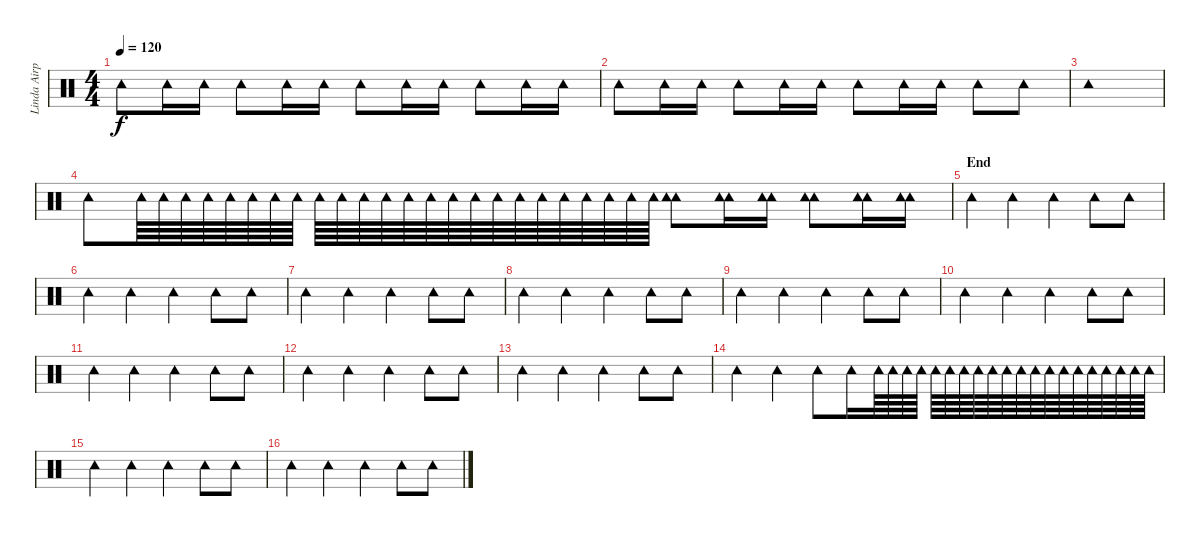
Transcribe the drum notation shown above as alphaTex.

\track ("Linda Airplane" "Linda Airp") {instrument percussion}
\staff {score}
\articulation defaults
\ts (4 4)
\tempo 120
\clef neutral
\ks c "Tambourine (hit)".8{dy f} "Tambourine (hit)".16 "Tambourine (hit)".16 "Tambourine (hit)".8 "Tambourine (hit)".16 "Tambourine (hit)".16 "Tambourine (hit)".8 "Tambourine (hit)".16 "Tambourine (hit)".16 "Tambourine (hit)".8 "Tambourine (hit)".16 "Tambourine (hit)".16
|
"Tambourine (hit)".8 "Tambourine (hit)".16 "Tambourine (hit)".16 "Tambourine (hit)".8 "Tambourine (hit)".16 "Tambourine (hit)".16 "Tambourine (hit)".8 "Tambourine (hit)".16 "Tambourine (hit)".16 "Tambourine (hit)".8 "Tambourine (hit)".8 |
"Tambourine (hit)".1 |
"Tambourine (hit)".8 "Tambourine (hit)".64 "Tambourine (hit)".64 "Tambourine (hit)".64 "Tambourine (hit)".64 "Tambourine (hit)".64 "Tambourine (hit)".64 "Tambourine (hit)".64 "Tambourine (hit)".64 "Tambourine (hit)".64 "Tambourine (hit)".64 "Tambourine (hit)".64 "Tambourine (hit)".64 "Tambourine (hit)".64 "Tambourine (hit)".64 "Tambourine (hit)".64 "Tambourine (hit)".64 "Tambourine (hit)".64 "Tambourine (hit)".64 "Tambourine (hit)".64 "Tambourine (hit)".64 "Tambourine (hit)".64 "Tambourine (hit)".64 "Tambourine (hit)".64 "Tambourine (hit)".64 ("Tambourine (hit)" "Tambourine (hit)").8 ("Tambourine (hit)" "Tambourine (hit)").16 ("Tambourine (hit)" "Tambourine (hit)").16 ("Tambourine (hit)" "Tambourine (hit)").8 ("Tambourine (hit)" "Tambourine (hit)").16 ("Tambourine (hit)" "Tambourine (hit)").16 |
\section ("" "End")
"Tambourine (hit)".4 "Tambourine (hit)".4 "Tambourine (hit)".4 "Tambourine (hit)".8 "Tambourine (hit)".8 |
"Tambourine (hit)".4 "Tambourine (hit)".4 "Tambourine (hit)".4 "Tambourine (hit)".8 "Tambourine (hit)".8 |
"Tambourine (hit)".4 "Tambourine (hit)".4 "Tambourine (hit)".4 "Tambourine (hit)".8 "Tambourine (hit)".8 |
"Tambourine (hit)".4 "Tambourine (hit)".4 "Tambourine (hit)".4 "Tambourine (hit)".8 "Tambourine (hit)".8 |
"Tambourine (hit)".4 "Tambourine (hit)".4 "Tambourine (hit)".4 "Tambourine (hit)".8 "Tambourine (hit)".8 |
"Tambourine (hit)".4 "Tambourine (hit)".4 "Tambourine (hit)".4 "Tambourine (hit)".8 "Tambourine (hit)".8 |
"Tambourine (hit)".4 "Tambourine (hit)".4 "Tambourine (hit)".4 "Tambourine (hit)".8 "Tambourine (hit)".8 |
"Tambourine (hit)".4 "Tambourine (hit)".4 "Tambourine (hit)".4 "Tambourine (hit)".8 "Tambourine (hit)".8 |
"Tambourine (hit)".4 "Tambourine (hit)".4 "Tambourine (hit)".4 "Tambourine (hit)".8 "Tambourine (hit)".8 |
"Tambourine (hit)".4 "Tambourine (hit)".4 "Tambourine (hit)".8 "Tambourine (hit)".16 "Tambourine (hit)".64 "Tambourine (hit)".64 "Tambourine (hit)".64 "Tambourine (hit)".64 "Tambourine (hit)".64 "Tambourine (hit)".64 "Tambourine (hit)".64 "Tambourine (hit)".64 "Tambourine (hit)".64 "Tambourine (hit)".64 "Tambourine (hit)".64 "Tambourine (hit)".64 "Tambourine (hit)".64 "Tambourine (hit)".64 "Tambourine (hit)".64 "Tambourine (hit)".64 "Tambourine (hit)".64 "Tambourine (hit)".64 "Tambourine (hit)".64 "Tambourine (hit)".64 |
"Tambourine (hit)".4 "Tambourine (hit)".4 "Tambourine (hit)".4 "Tambourine (hit)".8 "Tambourine (hit)".8 |
"Tambourine (hit)".4 "Tambourine (hit)".4 "Tambourine (hit)".4 "Tambourine (hit)".8 "Tambourine (hit)".8
